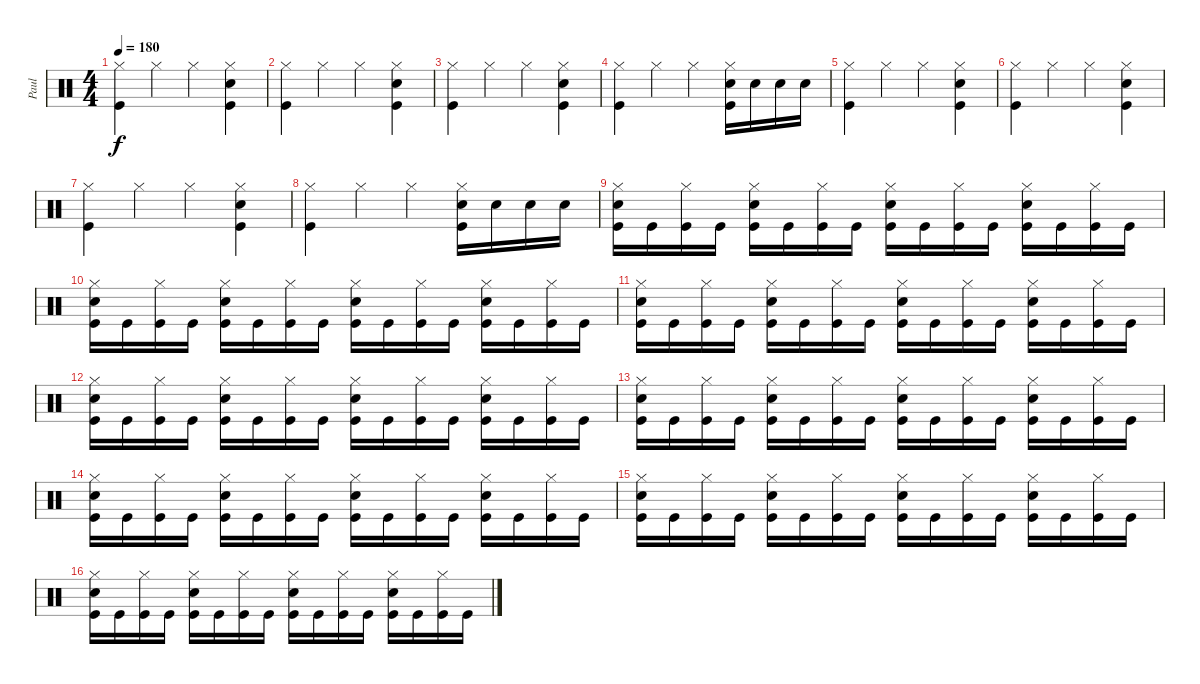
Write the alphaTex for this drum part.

\track ("Paul" "Paul") {instrument percussion}
\staff {score}
\articulation defaults
\ts (4 4)
\tempo 180
\clef neutral
\ks c
("Hi-Hat (closed)" "Kick (hit)").4{dy f} "Hi-Hat (closed)".4 "Hi-Hat (closed)".4 ("Hi-Hat (closed)" "Snare (hit) 2" "Kick (hit)").4 |
("Hi-Hat (closed)" "Kick (hit)").4 "Hi-Hat (closed)".4 "Hi-Hat (closed)".4 ("Hi-Hat (closed)" "Snare (hit) 2" "Kick (hit)").4 |
("Hi-Hat (closed)" "Kick (hit)").4 "Hi-Hat (closed)".4 "Hi-Hat (closed)".4 ("Hi-Hat (closed)" "Snare (hit) 2" "Kick (hit)").4 |
("Hi-Hat (closed)" "Kick (hit)").4 "Hi-Hat (closed)".4 "Hi-Hat (closed)".4 ("Snare (hit) 2" "Hi-Hat (closed)" "Kick (hit)").16 "Snare (hit) 2".16 "Snare (hit) 2".16 "Snare (hit) 2".16 |
("Hi-Hat (closed)" "Kick (hit)").4 "Hi-Hat (closed)".4 "Hi-Hat (closed)".4 ("Hi-Hat (closed)" "Snare (hit) 2" "Kick (hit)").4 |
("Hi-Hat (closed)" "Kick (hit)").4 "Hi-Hat (closed)".4 "Hi-Hat (closed)".4 ("Hi-Hat (closed)" "Snare (hit) 2" "Kick (hit)").4 |
("Hi-Hat (closed)" "Kick (hit)").4 "Hi-Hat (closed)".4 "Hi-Hat (closed)".4 ("Hi-Hat (closed)" "Snare (hit) 2" "Kick (hit)").4 |
("Hi-Hat (closed)" "Kick (hit)").4 "Hi-Hat (closed)".4 "Hi-Hat (closed)".4 ("Snare (hit) 2" "Hi-Hat (closed)" "Kick (hit)").16 "Snare (hit) 2".16 "Snare (hit) 2".16 "Snare (hit) 2".16 |
("Kick (hit)" "Snare (hit) 2" "Hi-Hat (closed)").16 "Kick (hit)".16 ("Kick (hit)" "Hi-Hat (closed)").16 "Kick (hit)".16 ("Kick (hit)" "Snare (hit) 2" "Hi-Hat (closed)").16 "Kick (hit)".16 ("Kick (hit)" "Hi-Hat (closed)").16 "Kick (hit)".16 ("Kick (hit)" "Snare (hit) 2" "Hi-Hat (closed)").16 "Kick (hit)".16 ("Kick (hit)" "Hi-Hat (closed)").16 "Kick (hit)".16 ("Kick (hit)" "Snare (hit) 2" "Hi-Hat (closed)").16 "Kick (hit)".16 ("Kick (hit)" "Hi-Hat (closed)").16 "Kick (hit)".16 |
("Kick (hit)" "Snare (hit) 2" "Hi-Hat (closed)").16 "Kick (hit)".16 ("Kick (hit)" "Hi-Hat (closed)").16 "Kick (hit)".16 ("Kick (hit)" "Snare (hit) 2" "Hi-Hat (closed)").16 "Kick (hit)".16 ("Kick (hit)" "Hi-Hat (closed)").16 "Kick (hit)".16 ("Kick (hit)" "Snare (hit) 2" "Hi-Hat (closed)").16 "Kick (hit)".16 ("Kick (hit)" "Hi-Hat (closed)").16 "Kick (hit)".16 ("Kick (hit)" "Snare (hit) 2" "Hi-Hat (closed)").16 "Kick (hit)".16 ("Kick (hit)" "Hi-Hat (closed)").16 "Kick (hit)".16 |
("Kick (hit)" "Snare (hit) 2" "Hi-Hat (closed)").16 "Kick (hit)".16 ("Kick (hit)" "Hi-Hat (closed)").16 "Kick (hit)".16 ("Kick (hit)" "Snare (hit) 2" "Hi-Hat (closed)").16 "Kick (hit)".16 ("Kick (hit)" "Hi-Hat (closed)").16 "Kick (hit)".16 ("Kick (hit)" "Snare (hit) 2" "Hi-Hat (closed)").16 "Kick (hit)".16 ("Kick (hit)" "Hi-Hat (closed)").16 "Kick (hit)".16 ("Kick (hit)" "Snare (hit) 2" "Hi-Hat (closed)").16 "Kick (hit)".16 ("Kick (hit)" "Hi-Hat (closed)").16 "Kick (hit)".16 |
("Kick (hit)" "Snare (hit) 2" "Hi-Hat (closed)").16 "Kick (hit)".16 ("Kick (hit)" "Hi-Hat (closed)").16 "Kick (hit)".16 ("Kick (hit)" "Snare (hit) 2" "Hi-Hat (closed)").16 "Kick (hit)".16 ("Kick (hit)" "Hi-Hat (closed)").16 "Kick (hit)".16 ("Kick (hit)" "Snare (hit) 2" "Hi-Hat (closed)").16 "Kick (hit)".16 ("Kick (hit)" "Hi-Hat (closed)").16 "Kick (hit)".16 ("Kick (hit)" "Snare (hit) 2" "Hi-Hat (closed)").16 "Kick (hit)".16 ("Kick (hit)" "Hi-Hat (closed)").16 "Kick (hit)".16 |
("Kick (hit)" "Snare (hit) 2" "Hi-Hat (closed)").16 "Kick (hit)".16 ("Kick (hit)" "Hi-Hat (closed)").16 "Kick (hit)".16 ("Kick (hit)" "Snare (hit) 2" "Hi-Hat (closed)").16 "Kick (hit)".16 ("Kick (hit)" "Hi-Hat (closed)").16 "Kick (hit)".16 ("Kick (hit)" "Snare (hit) 2" "Hi-Hat (closed)").16 "Kick (hit)".16 ("Kick (hit)" "Hi-Hat (closed)").16 "Kick (hit)".16 ("Kick (hit)" "Snare (hit) 2" "Hi-Hat (closed)").16 "Kick (hit)".16 ("Kick (hit)" "Hi-Hat (closed)").16 "Kick (hit)".16 |
("Kick (hit)" "Snare (hit) 2" "Hi-Hat (closed)").16 "Kick (hit)".16 ("Kick (hit)" "Hi-Hat (closed)").16 "Kick (hit)".16 ("Kick (hit)" "Snare (hit) 2" "Hi-Hat (closed)").16 "Kick (hit)".16 ("Kick (hit)" "Hi-Hat (closed)").16 "Kick (hit)".16 ("Kick (hit)" "Snare (hit) 2" "Hi-Hat (closed)").16 "Kick (hit)".16 ("Kick (hit)" "Hi-Hat (closed)").16 "Kick (hit)".16 ("Kick (hit)" "Snare (hit) 2" "Hi-Hat (closed)").16 "Kick (hit)".16 ("Kick (hit)" "Hi-Hat (closed)").16 "Kick (hit)".16 |
("Kick (hit)" "Snare (hit) 2" "Hi-Hat (closed)").16 "Kick (hit)".16 ("Kick (hit)" "Hi-Hat (closed)").16 "Kick (hit)".16 ("Kick (hit)" "Snare (hit) 2" "Hi-Hat (closed)").16 "Kick (hit)".16 ("Kick (hit)" "Hi-Hat (closed)").16 "Kick (hit)".16 ("Kick (hit)" "Snare (hit) 2" "Hi-Hat (closed)").16 "Kick (hit)".16 ("Kick (hit)" "Hi-Hat (closed)").16 "Kick (hit)".16 ("Kick (hit)" "Snare (hit) 2" "Hi-Hat (closed)").16 "Kick (hit)".16 ("Kick (hit)" "Hi-Hat (closed)").16 "Kick (hit)".16 |
("Kick (hit)" "Snare (hit) 2" "Hi-Hat (closed)").16 "Kick (hit)".16 ("Kick (hit)" "Hi-Hat (closed)").16 "Kick (hit)".16 ("Kick (hit)" "Snare (hit) 2" "Hi-Hat (closed)").16 "Kick (hit)".16 ("Kick (hit)" "Hi-Hat (closed)").16 "Kick (hit)".16 ("Kick (hit)" "Snare (hit) 2" "Hi-Hat (closed)").16 "Kick (hit)".16 ("Kick (hit)" "Hi-Hat (closed)").16 "Kick (hit)".16 ("Kick (hit)" "Snare (hit) 2" "Hi-Hat (closed)").16 "Kick (hit)".16 ("Kick (hit)" "Hi-Hat (closed)").16 "Kick (hit)".16
